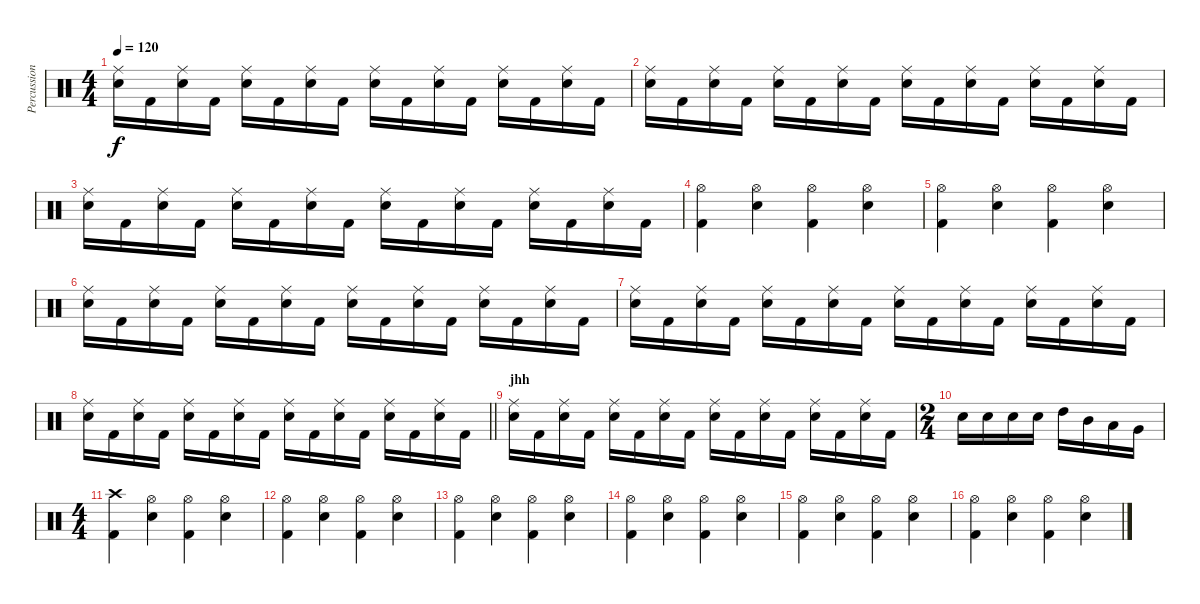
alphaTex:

\track ("Percussion" "Percussion") {instrument percussion}
\staff {score}
\articulation defaults
\ts (4 4)
\tempo 120
\clef neutral
\ks c
("Electric Snare (hit)" "Ride (middle)").16{dy f} "Kick (hit) 2".16 ("Electric Snare (hit)" "Ride (middle)").16 "Kick (hit) 2".16 ("Electric Snare (hit)" "Ride (middle)").16 "Kick (hit) 2".16 ("Electric Snare (hit)" "Ride (middle)").16 "Kick (hit) 2".16 ("Electric Snare (hit)" "Ride (middle)").16 "Kick (hit) 2".16 ("Electric Snare (hit)" "Ride (middle)").16 "Kick (hit) 2".16 ("Electric Snare (hit)" "Ride (middle)").16 "Kick (hit) 2".16 ("Electric Snare (hit)" "Ride (middle)").16 "Kick (hit) 2".16 |
("Electric Snare (hit)" "Ride (middle)").16 "Kick (hit) 2".16 ("Electric Snare (hit)" "Ride (middle)").16 "Kick (hit) 2".16 ("Electric Snare (hit)" "Ride (middle)").16 "Kick (hit) 2".16 ("Electric Snare (hit)" "Ride (middle)").16 "Kick (hit) 2".16 ("Electric Snare (hit)" "Ride (middle)").16 "Kick (hit) 2".16 ("Electric Snare (hit)" "Ride (middle)").16 "Kick (hit) 2".16 ("Electric Snare (hit)" "Ride (middle)").16 "Kick (hit) 2".16 ("Electric Snare (hit)" "Ride (middle)").16 "Kick (hit) 2".16 |
("Electric Snare (hit)" "Ride (middle)").16 "Kick (hit) 2".16 ("Electric Snare (hit)" "Ride (middle)").16 "Kick (hit) 2".16 ("Electric Snare (hit)" "Ride (middle)").16 "Kick (hit) 2".16 ("Electric Snare (hit)" "Ride (middle)").16 "Kick (hit) 2".16 ("Electric Snare (hit)" "Ride (middle)").16 "Kick (hit) 2".16 ("Electric Snare (hit)" "Ride (middle)").16 "Kick (hit) 2".16 ("Electric Snare (hit)" "Ride (middle)").16 "Kick (hit) 2".16 ("Electric Snare (hit)" "Ride (middle)").16 "Kick (hit) 2".16 |
("Hi-Hat (open)" "Kick (hit) 2").4 ("Hi-Hat (open)" "Electric Snare (hit)").4 ("Hi-Hat (open)" "Kick (hit) 2").4 ("Hi-Hat (open)" "Electric Snare (hit)").4 |
("Hi-Hat (open)" "Kick (hit) 2").4 ("Hi-Hat (open)" "Electric Snare (hit)").4 ("Hi-Hat (open)" "Kick (hit) 2").4 ("Hi-Hat (open)" "Electric Snare (hit)").4 |
("Electric Snare (hit)" "Ride (middle)").16 "Kick (hit) 2".16 ("Electric Snare (hit)" "Ride (middle)").16 "Kick (hit) 2".16 ("Electric Snare (hit)" "Ride (middle)").16 "Kick (hit) 2".16 ("Electric Snare (hit)" "Ride (middle)").16 "Kick (hit) 2".16 ("Electric Snare (hit)" "Ride (middle)").16 "Kick (hit) 2".16 ("Electric Snare (hit)" "Ride (middle)").16 "Kick (hit) 2".16 ("Electric Snare (hit)" "Ride (middle)").16 "Kick (hit) 2".16 ("Electric Snare (hit)" "Ride (middle)").16 "Kick (hit) 2".16 |
("Electric Snare (hit)" "Ride (middle)").16 "Kick (hit) 2".16 ("Electric Snare (hit)" "Ride (middle)").16 "Kick (hit) 2".16 ("Electric Snare (hit)" "Ride (middle)").16 "Kick (hit) 2".16 ("Electric Snare (hit)" "Ride (middle)").16 "Kick (hit) 2".16 ("Electric Snare (hit)" "Ride (middle)").16 "Kick (hit) 2".16 ("Electric Snare (hit)" "Ride (middle)").16 "Kick (hit) 2".16 ("Electric Snare (hit)" "Ride (middle)").16 "Kick (hit) 2".16 ("Electric Snare (hit)" "Ride (middle)").16 "Kick (hit) 2".16 |
\barLineRight lightlight
("Electric Snare (hit)" "Ride (middle)").16 "Kick (hit) 2".16 ("Electric Snare (hit)" "Ride (middle)").16 "Kick (hit) 2".16 ("Electric Snare (hit)" "Ride (middle)").16 "Kick (hit) 2".16 ("Electric Snare (hit)" "Ride (middle)").16 "Kick (hit) 2".16 ("Electric Snare (hit)" "Ride (middle)").16 "Kick (hit) 2".16 ("Electric Snare (hit)" "Ride (middle)").16 "Kick (hit) 2".16 ("Electric Snare (hit)" "Ride (middle)").16 "Kick (hit) 2".16 ("Electric Snare (hit)" "Ride (middle)").16 "Kick (hit) 2".16 |
\section ("" "jhh")
("Electric Snare (hit)" "Ride (middle)").16 "Kick (hit) 2".16 ("Electric Snare (hit)" "Ride (middle)").16 "Kick (hit) 2".16 ("Electric Snare (hit)" "Ride (middle)").16 "Kick (hit) 2".16 ("Electric Snare (hit)" "Ride (middle)").16 "Kick (hit) 2".16 ("Electric Snare (hit)" "Ride (middle)").16 "Kick (hit) 2".16 ("Electric Snare (hit)" "Ride (middle)").16 "Kick (hit) 2".16 ("Electric Snare (hit)" "Ride (middle)").16 "Kick (hit) 2".16 ("Electric Snare (hit)" "Ride (middle)").16 "Kick (hit) 2".16 |
\ts (2 4)
"Electric Snare (hit)".16 "Electric Snare (hit)".16 "Electric Snare (hit)".16 "Electric Snare (hit)".16 "High Tom (hit)".16 "Mid Tom (hit)".16 "Low Tom (hit)".16 "Very Low Tom (hit)".16 |
\ts (4 4)
("Crash high (hit)" "Kick (hit) 2").4 ("Hi-Hat (open)" "Electric Snare (hit)").4 ("Hi-Hat (open)" "Kick (hit) 2").4 ("Hi-Hat (open)" "Electric Snare (hit)").4 |
("Hi-Hat (open)" "Kick (hit) 2").4 ("Hi-Hat (open)" "Electric Snare (hit)").4 ("Hi-Hat (open)" "Kick (hit) 2").4 ("Hi-Hat (open)" "Electric Snare (hit)").4 |
("Hi-Hat (open)" "Kick (hit) 2").4 ("Hi-Hat (open)" "Electric Snare (hit)").4 ("Hi-Hat (open)" "Kick (hit) 2").4 ("Hi-Hat (open)" "Electric Snare (hit)").4 |
("Hi-Hat (open)" "Kick (hit) 2").4 ("Hi-Hat (open)" "Electric Snare (hit)").4 ("Hi-Hat (open)" "Kick (hit) 2").4 ("Hi-Hat (open)" "Electric Snare (hit)").4 |
("Hi-Hat (open)" "Kick (hit) 2").4 ("Hi-Hat (open)" "Electric Snare (hit)").4 ("Hi-Hat (open)" "Kick (hit) 2").4 ("Hi-Hat (open)" "Electric Snare (hit)").4 |
("Hi-Hat (open)" "Kick (hit) 2").4 ("Hi-Hat (open)" "Electric Snare (hit)").4 ("Hi-Hat (open)" "Kick (hit) 2").4 ("Hi-Hat (open)" "Electric Snare (hit)").4
